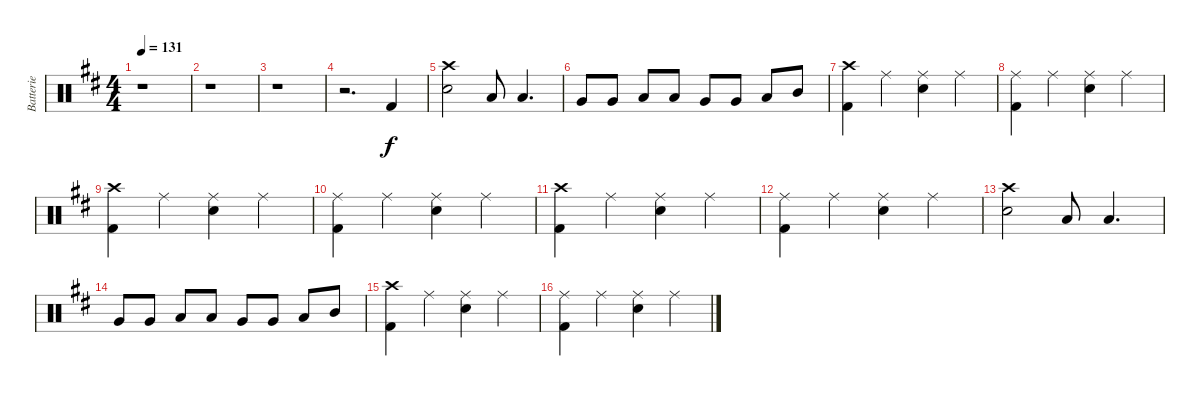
\track ("Batterie" "Batterie") {instrument percussion}
\staff {score}
\articulation defaults
\ts (4 4)
\tempo 131
\clef neutral
\ks d
r.1{dy f} |
r.1 |
r.1 |
r.2{d} "Kick (hit) 2".4 |
("Crash high (hit)" "Snare (hit) 2").2 "Low Tom (hit)".8 "Low Tom (hit)".4{d} |
"Very Low Tom (hit)".8 "Very Low Tom (hit)".8 "Low Floor Tom (hit)".8 "Low Floor Tom (hit)".8 "Very Low Tom (hit)".8 "Very Low Tom (hit)".8 "Low Tom (hit)".8 "Mid Tom (hit)".8 |
("Crash high (hit)" "Kick (hit) 2").4 "Ride (middle)".4 ("Ride (middle)" "Snare (hit) 2").4 "Ride (middle)".4 |
("Ride (middle)" "Kick (hit) 2").4 "Ride (middle)".4 ("Ride (middle)" "Snare (hit) 2").4 "Ride (middle)".4 |
("Crash high (hit)" "Kick (hit) 2").4 "Ride (middle)".4 ("Ride (middle)" "Snare (hit) 2").4 "Ride (middle)".4 |
("Ride (middle)" "Kick (hit) 2").4 "Ride (middle)".4 ("Ride (middle)" "Snare (hit) 2").4 "Ride (middle)".4 |
("Crash high (hit)" "Kick (hit) 2").4 "Ride (middle)".4 ("Ride (middle)" "Snare (hit) 2").4 "Ride (middle)".4 |
("Ride (middle)" "Kick (hit) 2").4 "Ride (middle)".4 ("Ride (middle)" "Snare (hit) 2").4 "Ride (middle)".4 |
("Crash high (hit)" "Snare (hit) 2").2 "Low Tom (hit)".8 "Low Tom (hit)".4{d} |
"Very Low Tom (hit)".8 "Very Low Tom (hit)".8 "Low Floor Tom (hit)".8 "Low Floor Tom (hit)".8 "Very Low Tom (hit)".8 "Very Low Tom (hit)".8 "Low Tom (hit)".8 "Mid Tom (hit)".8 |
("Crash high (hit)" "Kick (hit) 2").4 "Ride (middle)".4 ("Ride (middle)" "Snare (hit) 2").4 "Ride (middle)".4 |
("Ride (middle)" "Kick (hit) 2").4 "Ride (middle)".4 ("Ride (middle)" "Snare (hit) 2").4 "Ride (middle)".4
